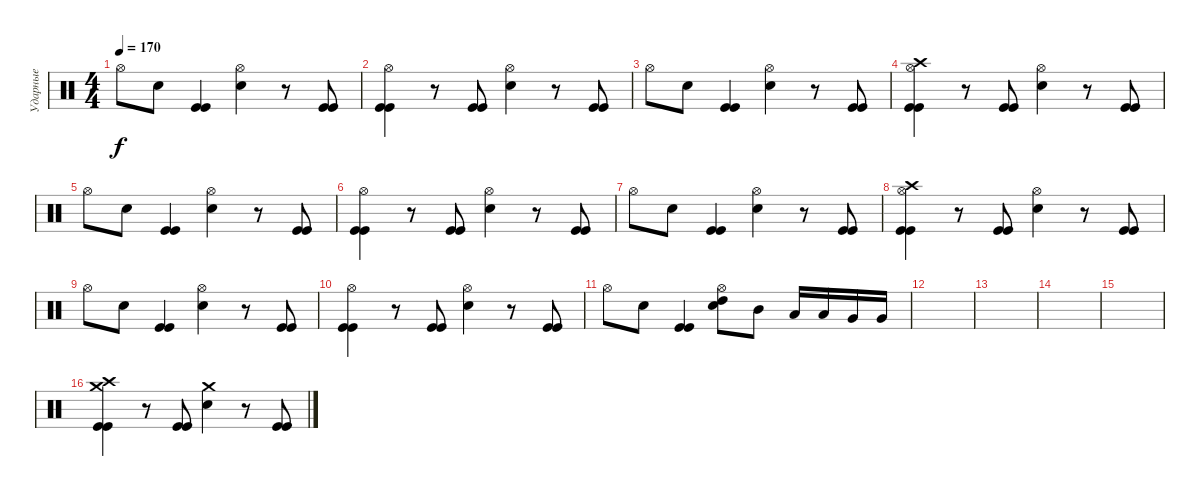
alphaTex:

\track ("Ударные" "Ударные") {instrument percussion}
\staff {score}
\articulation defaults
\ts (4 4)
\tempo 170
\clef neutral
\ks c "Hi-Hat (open)".8{dy f} "Electric Snare (hit)".8
("Kick (hit)" "Kick (hit)").4 ("Hi-Hat (open)" "Electric Snare (hit)").4 r.8 ("Kick (hit)" "Kick (hit)").8 |
("Hi-Hat (open)" "Kick (hit)" "Kick (hit)").4 r.8 ("Kick (hit)" "Kick (hit)").8 ("Hi-Hat (open)" "Electric Snare (hit)").4 r.8 ("Kick (hit)" "Kick (hit)").8 |
"Hi-Hat (open)".8 "Electric Snare (hit)".8 ("Kick (hit)" "Kick (hit)").4 ("Hi-Hat (open)" "Electric Snare (hit)").4 r.8 ("Kick (hit)" "Kick (hit)").8 |
("Crash high (hit)" "Hi-Hat (open)" "Kick (hit)" "Kick (hit)").4 r.8 ("Kick (hit)" "Kick (hit)").8 ("Hi-Hat (open)" "Electric Snare (hit)").4 r.8 ("Kick (hit)" "Kick (hit)").8 |
"Hi-Hat (open)".8 "Electric Snare (hit)".8 ("Kick (hit)" "Kick (hit)").4 ("Hi-Hat (open)" "Electric Snare (hit)").4 r.8 ("Kick (hit)" "Kick (hit)").8 |
("Hi-Hat (open)" "Kick (hit)" "Kick (hit)").4 r.8 ("Kick (hit)" "Kick (hit)").8 ("Hi-Hat (open)" "Electric Snare (hit)").4 r.8 ("Kick (hit)" "Kick (hit)").8 |
"Hi-Hat (open)".8 "Electric Snare (hit)".8 ("Kick (hit)" "Kick (hit)").4 ("Hi-Hat (open)" "Electric Snare (hit)").4 r.8 ("Kick (hit)" "Kick (hit)").8 |
("Crash high (hit)" "Hi-Hat (open)" "Kick (hit)" "Kick (hit)").4 r.8 ("Kick (hit)" "Kick (hit)").8 ("Hi-Hat (open)" "Electric Snare (hit)").4 r.8 ("Kick (hit)" "Kick (hit)").8 |
"Hi-Hat (open)".8 "Electric Snare (hit)".8 ("Kick (hit)" "Kick (hit)").4 ("Hi-Hat (open)" "Electric Snare (hit)").4 r.8 ("Kick (hit)" "Kick (hit)").8 |
("Hi-Hat (open)" "Kick (hit)" "Kick (hit)").4 r.8 ("Kick (hit)" "Kick (hit)").8 ("Hi-Hat (open)" "Electric Snare (hit)").4 r.8 ("Kick (hit)" "Kick (hit)").8 |
"Hi-Hat (open)".8 "Electric Snare (hit)".8 ("Kick (hit)" "Kick (hit)").4 ("Hi-Hat (open)" "Electric Snare (hit)" "High Tom (hit)").8 "Mid Tom (hit)".8 "Low Tom (hit)".16 "Low Tom (hit)".16 "Very Low Tom (hit)".16 "Very Low Tom (hit)".16 |
|
|
|
|
("Crash high (hit)" "Crash medium (hit)" "Kick (hit)" "Kick (hit)").4 r.8 ("Kick (hit)" "Kick (hit)").8 ("Crash medium (hit)" "Electric Snare (hit)").4 r.8 ("Kick (hit)" "Kick (hit)").8
